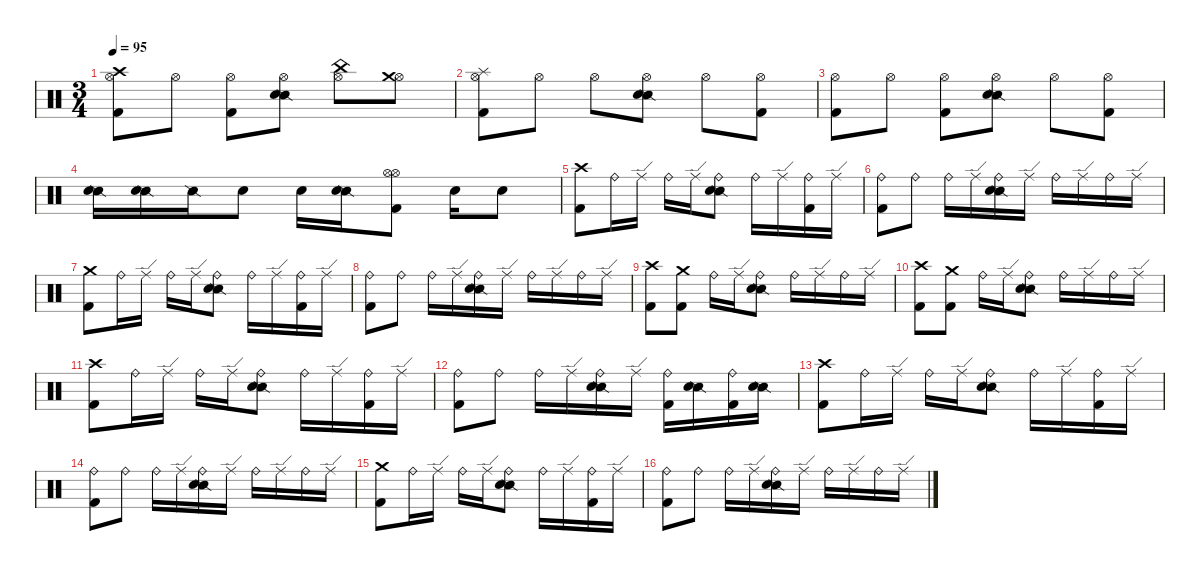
\defaultSystemsLayout 4
\hideDynamics
\bracketExtendMode nobrackets
\singleTrackTrackNamePolicy hidden
\multiTrackTrackNamePolicy hidden
\firstSystemTrackNameMode fullname
\firstSystemTrackNameOrientation horizontal
\otherSystemsTrackNameOrientation horizontal
\track ("Drums" "drm.") {defaultSystemsLayout 4 instrument percussion}
\staff {score}
\articulation defaults
\ts (3 4)
\tempo 95
\clef neutral
\ks c
("Hi-Hat (open)" "Crash high (hit)" "Kick (hit) 2").8{dy ff beam Down} "Hi-Hat (open)".8{beam Down} ("Hi-Hat (open)" "Kick (hit) 2").8{beam Down} ("Hi-Hat (open)" "Snare (side stick) 2" "Snare (hit) 2").8{beam Down} ("Hi-Hat (open)" "China (hit)").8{beam Down} ("Hi-Hat (open)" "Crash medium (hit)").8{beam Down} |
("Hi-Hat (open)" "Splash (hit)" "Kick (hit) 2").8{beam Down} "Hi-Hat (open)".8{beam Down} "Hi-Hat (open)".8{beam Down} ("Hi-Hat (open)" "Snare (side stick) 2" "Snare (hit) 2").8{beam Down} "Hi-Hat (open)".8{beam Down} ("Hi-Hat (open)" "Kick (hit) 2").8{beam Down} |
("Hi-Hat (open)" "Kick (hit) 2").8{beam Down} "Hi-Hat (open)".8{beam Down} ("Hi-Hat (open)" "Kick (hit) 2").8{beam Down} ("Hi-Hat (open)" "Snare (side stick) 2" "Snare (hit) 2").8{beam Down} "Hi-Hat (open)".8{beam Down} ("Hi-Hat (open)" "Kick (hit) 2").8{beam Down} |
("Snare (side stick) 2" "Snare (hit) 2").16{beam Down} ("Snare (side stick) 2" "Snare (hit) 2").16{beam Down} "Snare (side stick) 2".16{dy mf beam Down} "Snare (hit) 2".8{dy fff beam Down} "Snare (hit) 2".16{beam Down} ("Snare (side stick) 2" "Snare (hit) 2").16{dy ff beam Down} ("Hi-Hat (open)" "Hi-Hat (open)" "Kick (hit) 2").8{dy fff beam Down} "Snare (hit) 2".16{beam Down} "Snare (hit) 2".8{beam Down} |
("Crash high (hit)" "Kick (hit) 2").8{beam Down} "Ride (bell)".16{dy f beam Down} "Ride (edge)".16{beam Down} "Ride (bell)".16{beam Down} "Ride (edge)".16{beam Down} ("Ride (bell)" "Snare (side stick) 2" "Snare (hit) 2").8{beam Down} "Ride (bell)".16{beam Down} "Ride (edge)".16{beam Down} ("Ride (bell)" "Kick (hit) 2").16{beam Down} "Ride (edge)".16{beam Down} |
("Ride (bell)" "Kick (hit) 2").8{beam Down} "Ride (bell)".8{beam Down} "Ride (bell)".16{beam Down} "Ride (edge)".16{beam Down} ("Ride (bell)" "Snare (side stick) 2" "Snare (hit) 2").16{beam Down} "Ride (edge)".16{beam Down} "Ride (bell)".16{beam Down} "Ride (edge)".16{beam Down} "Ride (bell)".16{beam Down} "Ride (edge)".16{beam Down} |
("Crash medium (hit)" "Kick (hit) 2").8{dy fff beam Down} "Ride (bell)".16{dy f beam Down} "Ride (edge)".16{beam Down} "Ride (bell)".16{beam Down} "Ride (edge)".16{beam Down} ("Ride (bell)" "Snare (side stick) 2" "Snare (hit) 2").8{beam Down} "Ride (bell)".16{beam Down} "Ride (edge)".16{beam Down} ("Ride (bell)" "Kick (hit) 2").16{beam Down} "Ride (edge)".16{beam Down} |
("Ride (bell)" "Kick (hit) 2").8{beam Down} "Ride (bell)".8{beam Down} "Ride (bell)".16{beam Down} "Ride (edge)".16{beam Down} ("Ride (bell)" "Snare (side stick) 2" "Snare (hit) 2").16{beam Down} "Ride (edge)".16{beam Down} "Ride (bell)".16{beam Down} "Ride (edge)".16{beam Down} "Ride (bell)".16{beam Down} "Ride (edge)".16{beam Down} |
("Crash high (hit)" "Kick (hit) 2").8{dy fff beam Down} ("Crash medium (hit)" "Kick (hit) 2").8{beam Down} "Ride (bell)".16{dy f beam Down} "Ride (edge)".16{beam Down} ("Ride (bell)" "Snare (side stick) 2" "Snare (hit) 2").8{beam Down} "Ride (bell)".16{beam Down} "Ride (edge)".16{beam Down} "Ride (bell)".16{beam Down} "Ride (edge)".16{beam Down} |
("Crash high (hit)" "Kick (hit) 2").8{dy fff beam Down} ("Crash medium (hit)" "Kick (hit) 2").8{beam Down} "Ride (bell)".16{dy f beam Down} "Ride (edge)".16{beam Down} ("Ride (bell)" "Snare (side stick) 2" "Snare (hit) 2").8{beam Down} "Ride (bell)".16{beam Down} "Ride (edge)".16{beam Down} "Ride (bell)".16{beam Down} "Ride (edge)".16{beam Down} |
("Crash high (hit)" "Kick (hit) 2").8{dy fff beam Down} "Ride (bell)".16{dy f beam Down} "Ride (edge)".16{beam Down} "Ride (bell)".16{beam Down} "Ride (edge)".16{beam Down} ("Ride (bell)" "Snare (side stick) 2" "Snare (hit) 2").8{beam Down} "Ride (bell)".16{beam Down} "Ride (edge)".16{beam Down} ("Ride (bell)" "Kick (hit) 2").16{beam Down} "Ride (edge)".16{beam Down} |
("Ride (bell)" "Kick (hit) 2").8{beam Down} "Ride (bell)".8{beam Down} "Ride (bell)".16{beam Down} "Ride (edge)".16{beam Down} ("Ride (bell)" "Snare (side stick) 2" "Snare (hit) 2").16{beam Down} "Ride (edge)".16{beam Down} ("Ride (bell)" "Kick (hit) 2").16{beam Down} ("Snare (side stick) 2" "Snare (hit) 2").16{dy ff beam Down} ("Ride (bell)" "Kick (hit) 2").16{dy f beam Down} ("Snare (side stick) 2" "Snare (hit) 2").16{dy ff beam Down} |
("Crash high (hit)" "Kick (hit) 2").8{dy fff beam Down} "Ride (bell)".16{dy f beam Down} "Ride (edge)".16{beam Down} "Ride (bell)".16{beam Down} "Ride (edge)".16{beam Down} ("Ride (bell)" "Snare (side stick) 2" "Snare (hit) 2").8{beam Down} "Ride (bell)".16{beam Down} "Ride (edge)".16{beam Down} ("Ride (bell)" "Kick (hit) 2").16{beam Down} "Ride (edge)".16{beam Down} |
("Ride (bell)" "Kick (hit) 2").8{beam Down} "Ride (bell)".8{beam Down} "Ride (bell)".16{beam Down} "Ride (edge)".16{beam Down} ("Ride (bell)" "Snare (side stick) 2" "Snare (hit) 2").16{beam Down} "Ride (edge)".16{beam Down} "Ride (bell)".16{beam Down} "Ride (edge)".16{beam Down} "Ride (bell)".16{beam Down} "Ride (edge)".16{beam Down} |
("Crash medium (hit)" "Kick (hit) 2").8{dy fff beam Down} "Ride (bell)".16{dy f beam Down} "Ride (edge)".16{beam Down} "Ride (bell)".16{beam Down} "Ride (edge)".16{beam Down} ("Ride (bell)" "Snare (side stick) 2" "Snare (hit) 2").8{beam Down} "Ride (bell)".16{beam Down} "Ride (edge)".16{beam Down} ("Ride (bell)" "Kick (hit) 2").16{beam Down} "Ride (edge)".16{beam Down} |
("Ride (bell)" "Kick (hit) 2").8{beam Down} "Ride (bell)".8{beam Down} "Ride (bell)".16{beam Down} "Ride (edge)".16{beam Down} ("Ride (bell)" "Snare (side stick) 2" "Snare (hit) 2").16{beam Down} "Ride (edge)".16{beam Down} "Ride (bell)".16{beam Down} "Ride (edge)".16{beam Down} "Ride (bell)".16{beam Down} "Ride (edge)".16{beam Down}
